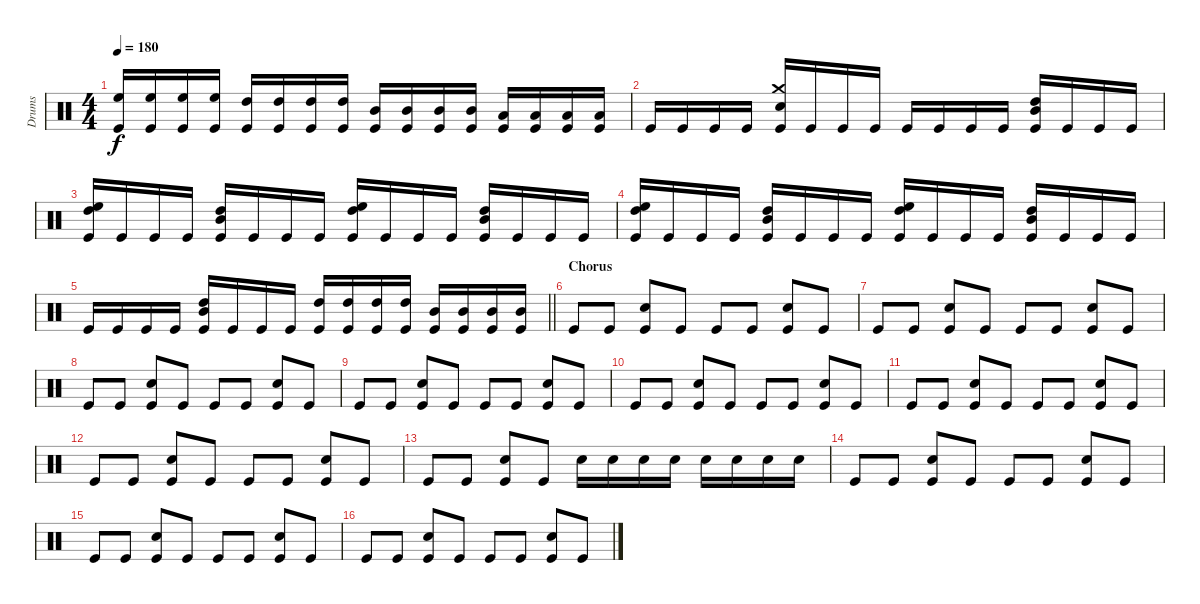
\track ("Drums" "Drums") {instrument percussion}
\staff {score}
\articulation defaults
\ts (4 4)
\tempo 180
\clef neutral
\ks c
("High Floor Tom (hit)" "Kick (hit)").16{dy f} ("High Floor Tom (hit)" "Kick (hit)").16 ("High Floor Tom (hit)" "Kick (hit)").16 ("High Floor Tom (hit)" "Kick (hit)").16 ("High Tom (hit)" "Kick (hit)").16 ("High Tom (hit)" "Kick (hit)").16 ("High Tom (hit)" "Kick (hit)").16 ("High Tom (hit)" "Kick (hit)").16 ("Mid Tom (hit)" "Kick (hit)").16 ("Mid Tom (hit)" "Kick (hit)").16 ("Mid Tom (hit)" "Kick (hit)").16 ("Mid Tom (hit)" "Kick (hit)").16 ("Low Tom (hit)" "Kick (hit)").16 ("Low Tom (hit)" "Kick (hit)").16 ("Low Tom (hit)" "Kick (hit)").16 ("Low Tom (hit)" "Kick (hit)").16 |
"Kick (hit)".16 "Kick (hit)".16 "Kick (hit)".16 "Kick (hit)".16 ("Crash medium (hit)" "Electric Snare (hit)" "Kick (hit)").16 "Kick (hit)".16 "Kick (hit)".16 "Kick (hit)".16 "Kick (hit)".16 "Kick (hit)".16 "Kick (hit)".16 "Kick (hit)".16 ("Mid Tom (hit)" "High Tom (hit)" "Kick (hit)").16 "Kick (hit)".16 "Kick (hit)".16 "Kick (hit)".16 |
("High Floor Tom (hit)" "High Tom (hit)" "Kick (hit)").16 "Kick (hit)".16 "Kick (hit)".16 "Kick (hit)".16 ("Mid Tom (hit)" "High Tom (hit)" "Kick (hit)").16 "Kick (hit)".16 "Kick (hit)".16 "Kick (hit)".16 ("High Floor Tom (hit)" "High Tom (hit)" "Kick (hit)").16 "Kick (hit)".16 "Kick (hit)".16 "Kick (hit)".16 ("Mid Tom (hit)" "High Tom (hit)" "Kick (hit)").16 "Kick (hit)".16 "Kick (hit)".16 "Kick (hit)".16 |
("High Floor Tom (hit)" "High Tom (hit)" "Kick (hit)").16 "Kick (hit)".16 "Kick (hit)".16 "Kick (hit)".16 ("Mid Tom (hit)" "High Tom (hit)" "Kick (hit)").16 "Kick (hit)".16 "Kick (hit)".16 "Kick (hit)".16 ("High Floor Tom (hit)" "High Tom (hit)" "Kick (hit)").16 "Kick (hit)".16 "Kick (hit)".16 "Kick (hit)".16 ("Mid Tom (hit)" "High Tom (hit)" "Kick (hit)").16 "Kick (hit)".16 "Kick (hit)".16 "Kick (hit)".16 |
\barLineRight lightlight "Kick (hit)".16 "Kick (hit)".16 "Kick (hit)".16 "Kick (hit)".16
("Mid Tom (hit)" "High Tom (hit)" "Kick (hit)").16 "Kick (hit)".16 "Kick (hit)".16 "Kick (hit)".16 ("High Tom (hit)" "Kick (hit)").16 ("High Tom (hit)" "Kick (hit)").16 ("High Tom (hit)" "Kick (hit)").16 ("High Tom (hit)" "Kick (hit)").16 ("Mid Tom (hit)" "Kick (hit)").16 ("Mid Tom (hit)" "Kick (hit)").16 ("Mid Tom (hit)" "Kick (hit)").16 ("Mid Tom (hit)" "Kick (hit)").16 |
\section ("" "Chorus")
"Kick (hit)".8 "Kick (hit)".8 ("Electric Snare (hit)" "Kick (hit)").8 "Kick (hit)".8 "Kick (hit)".8 "Kick (hit)".8 ("Electric Snare (hit)" "Kick (hit)").8 "Kick (hit)".8 |
"Kick (hit)".8 "Kick (hit)".8 ("Electric Snare (hit)" "Kick (hit)").8 "Kick (hit)".8 "Kick (hit)".8 "Kick (hit)".8 ("Electric Snare (hit)" "Kick (hit)").8 "Kick (hit)".8 |
"Kick (hit)".8 "Kick (hit)".8 ("Electric Snare (hit)" "Kick (hit)").8 "Kick (hit)".8 "Kick (hit)".8 "Kick (hit)".8 ("Electric Snare (hit)" "Kick (hit)").8 "Kick (hit)".8 |
"Kick (hit)".8 "Kick (hit)".8 ("Electric Snare (hit)" "Kick (hit)").8 "Kick (hit)".8 "Kick (hit)".8 "Kick (hit)".8 ("Electric Snare (hit)" "Kick (hit)").8 "Kick (hit)".8 |
"Kick (hit)".8 "Kick (hit)".8 ("Electric Snare (hit)" "Kick (hit)").8 "Kick (hit)".8 "Kick (hit)".8 "Kick (hit)".8 ("Electric Snare (hit)" "Kick (hit)").8 "Kick (hit)".8 |
"Kick (hit)".8 "Kick (hit)".8 ("Electric Snare (hit)" "Kick (hit)").8 "Kick (hit)".8 "Kick (hit)".8 "Kick (hit)".8 ("Electric Snare (hit)" "Kick (hit)").8 "Kick (hit)".8 |
"Kick (hit)".8 "Kick (hit)".8 ("Electric Snare (hit)" "Kick (hit)").8 "Kick (hit)".8 "Kick (hit)".8 "Kick (hit)".8 ("Electric Snare (hit)" "Kick (hit)").8 "Kick (hit)".8 |
"Kick (hit)".8 "Kick (hit)".8 ("Electric Snare (hit)" "Kick (hit)").8 "Kick (hit)".8 "Electric Snare (hit)".16 "Electric Snare (hit)".16 "Electric Snare (hit)".16 "Electric Snare (hit)".16 "Electric Snare (hit)".16 "Electric Snare (hit)".16 "Electric Snare (hit)".16 "Electric Snare (hit)".16 |
"Kick (hit)".8 "Kick (hit)".8 ("Electric Snare (hit)" "Kick (hit)").8 "Kick (hit)".8 "Kick (hit)".8 "Kick (hit)".8 ("Electric Snare (hit)" "Kick (hit)").8 "Kick (hit)".8 |
"Kick (hit)".8 "Kick (hit)".8 ("Electric Snare (hit)" "Kick (hit)").8 "Kick (hit)".8 "Kick (hit)".8 "Kick (hit)".8 ("Electric Snare (hit)" "Kick (hit)").8 "Kick (hit)".8 |
"Kick (hit)".8 "Kick (hit)".8 ("Electric Snare (hit)" "Kick (hit)").8 "Kick (hit)".8 "Kick (hit)".8 "Kick (hit)".8 ("Electric Snare (hit)" "Kick (hit)").8 "Kick (hit)".8
